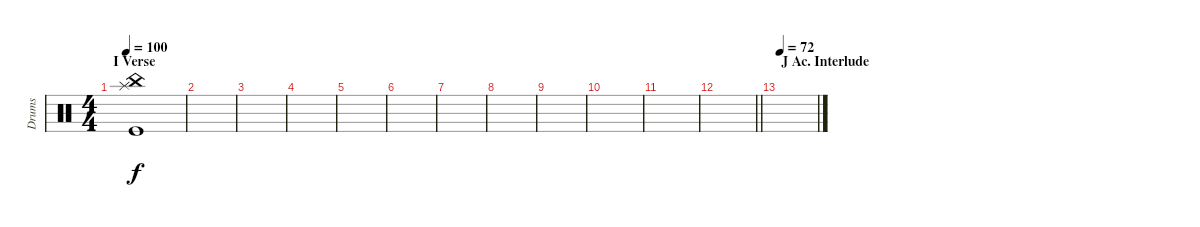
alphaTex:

\track ("Drums" "Drums") {instrument percussion}
\staff {score}
\articulation defaults
\ts (4 4)
\section ("" "I Verse")
\tempo 100
\clef neutral
\ks c
("Splash (hit)" "China (hit)" "Kick (hit)").1{dy f} |
|
|
|
|
|
|
|
|
|
|
\barLineRight lightlight
|
\section ("" "J Ac. Interlude")
\tempo 72
